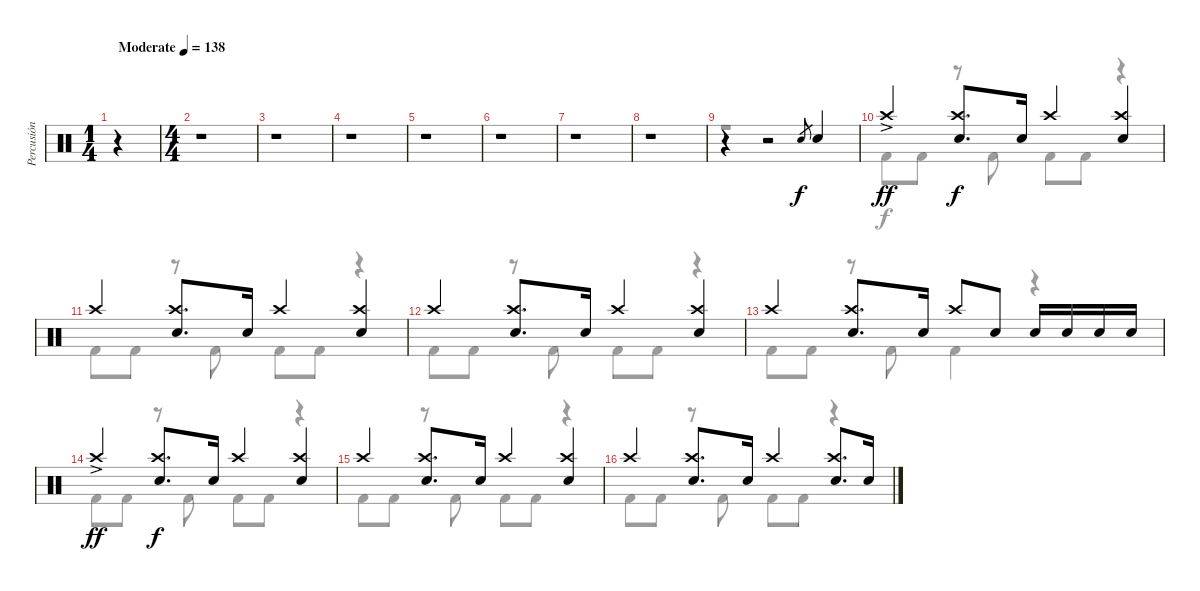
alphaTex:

\track ("Percusión" "Percusión") {instrument percussion}
\staff {score}
\articulation defaults
\voice
\ts (1 4)
\tempo (138 "Moderate")
\clef neutral
\ks c
r.4{dy f} |
\ts (4 4)
r.1 |
r.1 |
r.1 |
r.1 |
r.1 |
r.1 |
r.1 |
r.4 r.2 "Electric Snare (hit)".8{gr} "Electric Snare (hit)".4 |
"Crash high (hit)"{ac}.4{dy ff} ("Electric Snare (hit)" "Crash high (hit)").8{d dy f} "Electric Snare (hit)".16 "Crash high (hit)".4 ("Electric Snare (hit)" "Crash high (hit)").4 |
"Crash high (hit)".4 ("Electric Snare (hit)" "Crash high (hit)").8{d} "Electric Snare (hit)".16 "Crash high (hit)".4 ("Electric Snare (hit)" "Crash high (hit)").4 |
"Crash high (hit)".4 ("Electric Snare (hit)" "Crash high (hit)").8{d} "Electric Snare (hit)".16 "Crash high (hit)".4 ("Electric Snare (hit)" "Crash high (hit)").4 |
"Crash high (hit)".4 ("Electric Snare (hit)" "Crash high (hit)").8{d} "Electric Snare (hit)".16 "Crash high (hit)".8 "Electric Snare (hit)".8 "Electric Snare (hit)".16 "Electric Snare (hit)".16 "Electric Snare (hit)".16 "Electric Snare (hit)".16 |
"Crash high (hit)"{ac}.4{dy ff} ("Electric Snare (hit)" "Crash high (hit)").8{d dy f} "Electric Snare (hit)".16 "Crash high (hit)".4 ("Electric Snare (hit)" "Crash high (hit)").4 |
"Crash high (hit)".4 ("Electric Snare (hit)" "Crash high (hit)").8{d} "Electric Snare (hit)".16 "Crash high (hit)".4 ("Electric Snare (hit)" "Crash high (hit)").4 |
"Crash high (hit)".4 ("Electric Snare (hit)" "Crash high (hit)").8{d} "Electric Snare (hit)".16 "Crash high (hit)".4 ("Electric Snare (hit)" "Crash high (hit)").8{d} "Electric Snare (hit)".16
\voice
\clef neutral
\ottava regular
\simile none
\ks c
r.4{dy f} |
r.1 |
r.1 |
r.1 |
r.1 |
r.1 |
r.1 |
r.1 |
r.1 |
"Kick (hit) 2".8 "Kick (hit) 2".8 r.8 "Kick (hit) 2".8 "Kick (hit) 2".8 "Kick (hit) 2".8 r.4 |
"Kick (hit) 2".8 "Kick (hit) 2".8 r.8 "Kick (hit) 2".8 "Kick (hit) 2".8 "Kick (hit) 2".8 r.4 |
"Kick (hit) 2".8 "Kick (hit) 2".8 r.8 "Kick (hit) 2".8 "Kick (hit) 2".8 "Kick (hit) 2".8 r.4 |
"Kick (hit) 2".8 "Kick (hit) 2".8 r.8 "Kick (hit) 2".8 "Kick (hit) 2".4 r.4 |
"Kick (hit) 2".8 "Kick (hit) 2".8 r.8 "Kick (hit) 2".8 "Kick (hit) 2".8 "Kick (hit) 2".8 r.4 |
"Kick (hit) 2".8 "Kick (hit) 2".8 r.8 "Kick (hit) 2".8 "Kick (hit) 2".8 "Kick (hit) 2".8 r.4 |
"Kick (hit) 2".8 "Kick (hit) 2".8 r.8 "Kick (hit) 2".8 "Kick (hit) 2".8 "Kick (hit) 2".8 r.4
